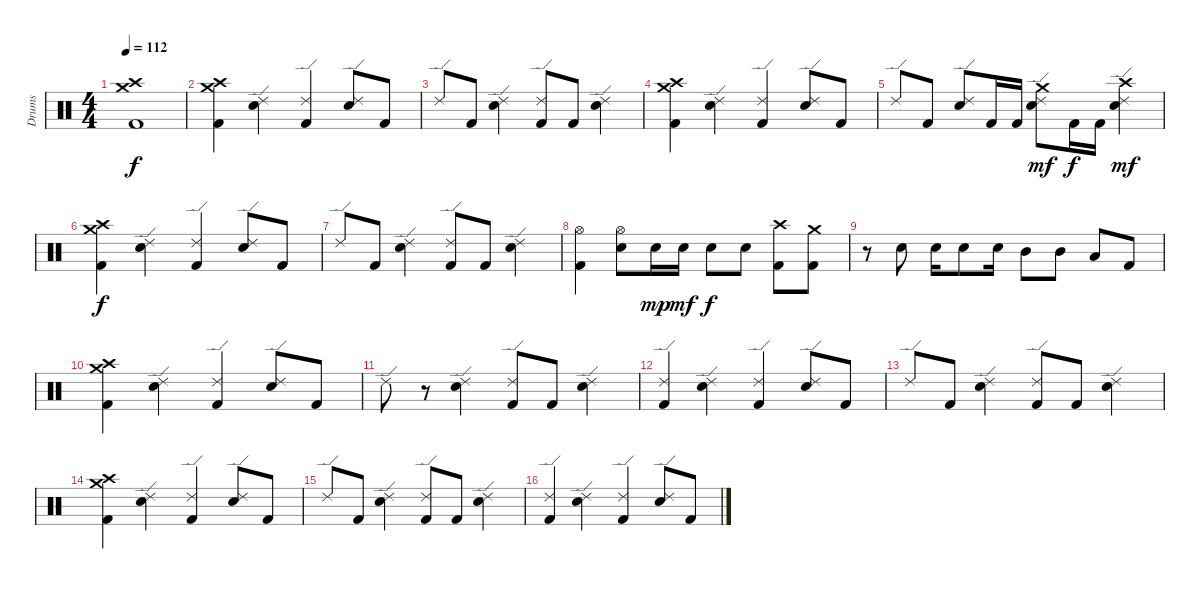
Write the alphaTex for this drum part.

\track ("Drums" "Drums") {instrument percussion}
\staff {score}
\articulation defaults
\ts (4 4)
\tempo 112
\clef neutral
\ks c
("Crash high (hit)" "Crash medium (hit)" "Kick (hit) 2").1{dy f} |
("Crash medium (hit)" "Crash high (hit)" "Kick (hit) 2").4 ("Ride (edge) 2" "Electric Snare (hit)").4 ("Ride (edge) 2" "Kick (hit) 2").4 ("Ride (edge) 2" "Electric Snare (hit)").8 "Kick (hit) 2".8 |
"Ride (edge) 2".8 "Kick (hit) 2".8 ("Ride (edge) 2" "Electric Snare (hit)").4 ("Ride (edge) 2" "Kick (hit) 2").8 "Kick (hit) 2".8 ("Ride (edge) 2" "Electric Snare (hit)").4 |
("Crash medium (hit)" "Crash high (hit)" "Kick (hit) 2").4 ("Ride (edge) 2" "Electric Snare (hit)").4 ("Ride (edge) 2" "Kick (hit) 2").4 ("Ride (edge) 2" "Electric Snare (hit)").8 "Kick (hit) 2".8 |
"Ride (edge) 2".8 "Kick (hit) 2".8 ("Ride (edge) 2" "Electric Snare (hit)").8 "Kick (hit) 2".16 "Kick (hit) 2".16 ("Crash medium (hit)" "Ride (edge) 2" "Electric Snare (hit)").8{dy mf} "Kick (hit) 2".16{dy f} "Kick (hit) 2".16 ("Crash high (hit)" "Ride (edge) 2" "Electric Snare (hit)").4{dy mf} |
("Crash medium (hit)" "Crash high (hit)" "Kick (hit) 2").4{dy f} ("Ride (edge) 2" "Electric Snare (hit)").4 ("Ride (edge) 2" "Kick (hit) 2").4 ("Ride (edge) 2" "Electric Snare (hit)").8 "Kick (hit) 2".8 |
"Ride (edge) 2".8 "Kick (hit) 2".8 ("Ride (edge) 2" "Electric Snare (hit)").4 ("Ride (edge) 2" "Kick (hit) 2").8 "Kick (hit) 2".8 ("Ride (edge) 2" "Electric Snare (hit)").4 |
("Hi-Hat (open)" "Kick (hit) 2").4 ("Hi-Hat (open)" "Electric Snare (hit)").8 "Electric Snare (hit)".16{dy mp} "Electric Snare (hit)".16{dy mf} "Electric Snare (hit)".8{dy f} "Electric Snare (hit)".8 ("Crash high (hit)" "Kick (hit) 2").8 ("Crash medium (hit)" "Kick (hit) 2").8 |
r.8 "Electric Snare (hit)".8 "Electric Snare (hit)".16 "Electric Snare (hit)".8 "Electric Snare (hit)".16 "Mid Tom (hit)".8 "Mid Tom (hit)".8 "Low Tom (hit)".8 "Kick (hit) 2".8 |
("Crash medium (hit)" "Crash high (hit)" "Kick (hit) 2").4 ("Ride (edge) 2" "Electric Snare (hit)").4 ("Ride (edge) 2" "Kick (hit) 2").4 ("Ride (edge) 2" "Electric Snare (hit)").8 "Kick (hit) 2".8 |
"Ride (edge) 2".8 r.8 ("Ride (edge) 2" "Electric Snare (hit)").4 ("Ride (edge) 2" "Kick (hit) 2").8 "Kick (hit) 2".8 ("Ride (edge) 2" "Electric Snare (hit)").4 |
("Ride (edge) 2" "Kick (hit) 2").4 ("Ride (edge) 2" "Electric Snare (hit)").4 ("Ride (edge) 2" "Kick (hit) 2").4 ("Ride (edge) 2" "Electric Snare (hit)").8 "Kick (hit) 2".8 |
"Ride (edge) 2".8 "Kick (hit) 2".8 ("Ride (edge) 2" "Electric Snare (hit)").4 ("Ride (edge) 2" "Kick (hit) 2").8 "Kick (hit) 2".8 ("Ride (edge) 2" "Electric Snare (hit)").4 |
("Crash medium (hit)" "Crash high (hit)" "Kick (hit) 2").4 ("Ride (edge) 2" "Electric Snare (hit)").4 ("Ride (edge) 2" "Kick (hit) 2").4 ("Ride (edge) 2" "Electric Snare (hit)").8 "Kick (hit) 2".8 |
"Ride (edge) 2".8 "Kick (hit) 2".8 ("Ride (edge) 2" "Electric Snare (hit)").4 ("Ride (edge) 2" "Kick (hit) 2").8 "Kick (hit) 2".8 ("Ride (edge) 2" "Electric Snare (hit)").4 |
("Ride (edge) 2" "Kick (hit) 2").4 ("Ride (edge) 2" "Electric Snare (hit)").4 ("Ride (edge) 2" "Kick (hit) 2").4 ("Ride (edge) 2" "Electric Snare (hit)").8 "Kick (hit) 2".8
